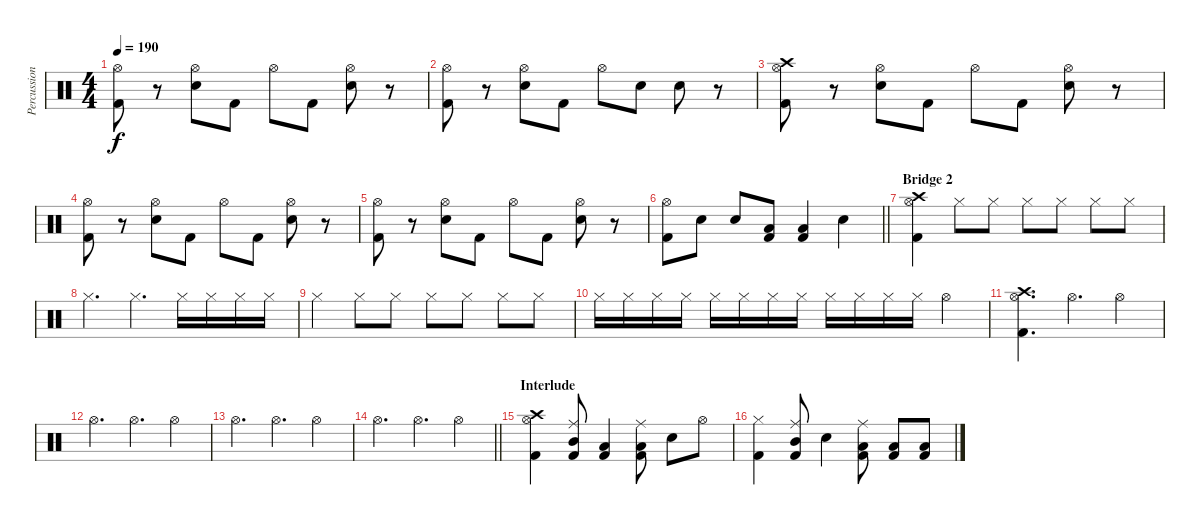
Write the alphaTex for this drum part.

\track ("Percussion" "Percussion") {instrument percussion}
\staff {score}
\articulation defaults
\ts (4 4)
\tempo 190
\clef neutral
\ks c
("Hi-Hat (open)" "Kick (hit) 2").8{dy f} r.8 ("Hi-Hat (open)" "Snare (hit) 2").8 "Kick (hit) 2".8 "Hi-Hat (open)".8 "Kick (hit) 2".8 ("Hi-Hat (open)" "Snare (hit) 2").8 r.8 |
("Hi-Hat (open)" "Kick (hit) 2").8 r.8 ("Hi-Hat (open)" "Snare (hit) 2").8 "Kick (hit) 2".8 "Hi-Hat (open)".8 "Snare (hit) 2".8 "Snare (hit) 2".8 r.8 |
("Hi-Hat (open)" "Crash high (hit)" "Kick (hit) 2").8 r.8 ("Hi-Hat (open)" "Snare (hit) 2").8 "Kick (hit) 2".8 "Hi-Hat (open)".8 "Kick (hit) 2".8 ("Hi-Hat (open)" "Snare (hit) 2").8 r.8 |
("Hi-Hat (open)" "Kick (hit) 2").8 r.8 ("Hi-Hat (open)" "Snare (hit) 2").8 "Kick (hit) 2".8 "Hi-Hat (open)".8 "Kick (hit) 2".8 ("Hi-Hat (open)" "Snare (hit) 2").8 r.8 |
("Hi-Hat (open)" "Kick (hit) 2").8 r.8 ("Hi-Hat (open)" "Snare (hit) 2").8 "Kick (hit) 2".8 "Hi-Hat (open)".8 "Kick (hit) 2".8 ("Hi-Hat (open)" "Snare (hit) 2").8 r.8 |
\barLineRight lightlight
("Kick (hit) 2" "Hi-Hat (open)").8 "Snare (hit) 2".8 "Snare (hit) 2".8 ("Low Tom (hit)" "Kick (hit) 2").8 ("Kick (hit) 2" "Low Tom (hit)").4 "Snare (hit) 2".4 |
\section ("" "Bridge 2")
("Crash high (hit)" "Hi-Hat (open)" "Kick (hit) 2").4 "Hi-Hat (closed)".8 "Hi-Hat (closed)".8 "Hi-Hat (closed)".8 "Hi-Hat (closed)".8 "Hi-Hat (closed)".8 "Hi-Hat (closed)".8 |
"Hi-Hat (closed)".4{d} "Hi-Hat (closed)".4{d} "Hi-Hat (closed)".16 "Hi-Hat (closed)".16 "Hi-Hat (closed)".16 "Hi-Hat (closed)".16 |
"Hi-Hat (closed)".4 "Hi-Hat (closed)".8 "Hi-Hat (closed)".8 "Hi-Hat (closed)".8 "Hi-Hat (closed)".8 "Hi-Hat (closed)".8 "Hi-Hat (closed)".8 |
"Hi-Hat (closed)".16 "Hi-Hat (closed)".16 "Hi-Hat (closed)".16 "Hi-Hat (closed)".16 "Hi-Hat (closed)".16 "Hi-Hat (closed)".16 "Hi-Hat (closed)".16 "Hi-Hat (closed)".16 "Hi-Hat (closed)".16 "Hi-Hat (closed)".16 "Hi-Hat (closed)".16 "Hi-Hat (closed)".16 "Hi-Hat (open)".4 |
("Hi-Hat (open)" "Kick (hit) 2" "Crash high (hit)").4{d} "Hi-Hat (open)".4{d} "Hi-Hat (open)".4 |
"Hi-Hat (open)".4{d} "Hi-Hat (open)".4{d} "Hi-Hat (open)".4 |
"Hi-Hat (open)".4{d} "Hi-Hat (open)".4{d} "Hi-Hat (open)".4 |
\barLineRight lightlight "Hi-Hat (open)".4{d} "Hi-Hat (open)".4{d} "Hi-Hat (open)".4
|
\section ("" "Interlude")
("Kick (hit) 2" "Crash high (hit)" "Hi-Hat (open)").4 ("Ride (middle)" "Kick (hit) 2" "Mid Tom (hit)").8 ("Low Tom (hit)" "Kick (hit) 2").4 ("Ride (middle)" "Kick (hit) 2" "Low Tom (hit)").8 "Snare (hit) 2".8 "Hi-Hat (open)".8 |
("Kick (hit) 2" "Hi-Hat (closed)").4 ("Ride (middle)" "Kick (hit) 2" "Mid Tom (hit)").8 "Snare (hit) 2".4 ("Ride (middle)" "Kick (hit) 2" "Low Tom (hit)").8 ("Low Tom (hit)" "Kick (hit) 2").8 ("Low Tom (hit)" "Kick (hit) 2").8
